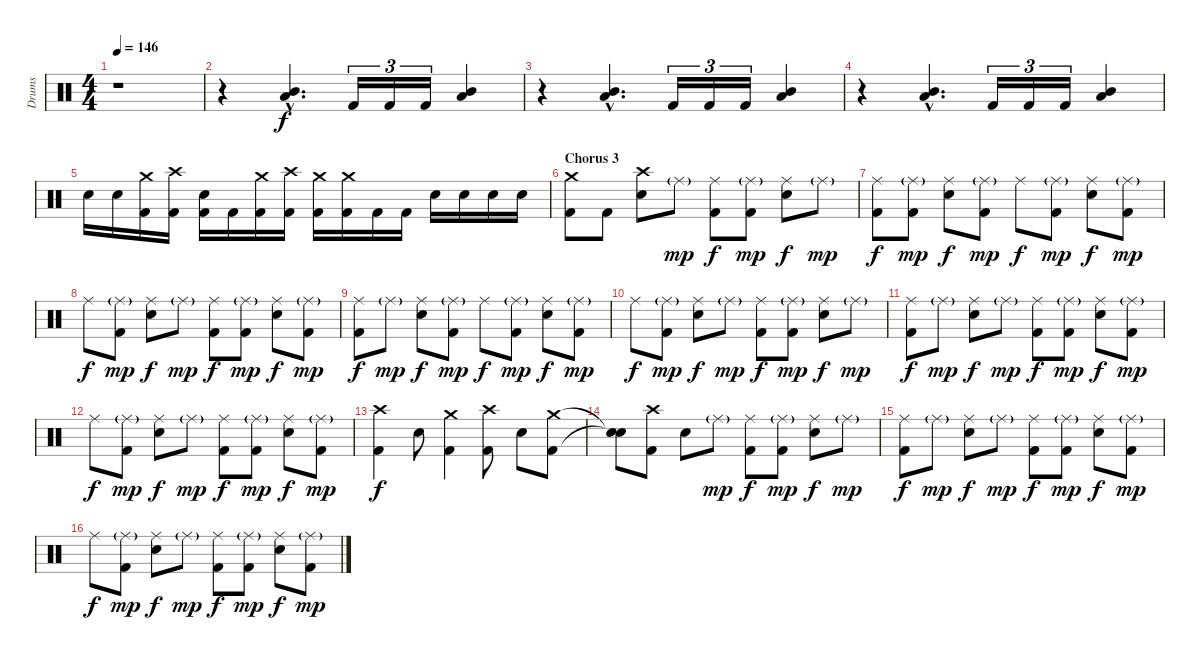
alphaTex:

\track ("Drums" "Drums") {instrument percussion}
\staff {score}
\articulation defaults
\ts (4 4)
\tempo 146
\clef neutral
\ks c
r.1{dy f} |
r.4 ("Mid Tom (hit)"{hac} "Low Floor Tom (hit)"{hac}).4{d} "Kick (hit) 2".16{tu (3 2)} "Kick (hit) 2".16{tu (3 2)} "Kick (hit) 2".16{tu (3 2)} ("Mid Tom (hit)" "Low Floor Tom (hit)").4 |
r.4 ("Mid Tom (hit)"{hac} "Low Floor Tom (hit)"{hac}).4{d} "Kick (hit) 2".16{tu (3 2)} "Kick (hit) 2".16{tu (3 2)} "Kick (hit) 2".16{tu (3 2)} ("Mid Tom (hit)" "Low Floor Tom (hit)").4 |
r.4 ("Mid Tom (hit)"{hac} "Low Floor Tom (hit)"{hac}).4{d} "Kick (hit) 2".16{tu (3 2)} "Kick (hit) 2".16{tu (3 2)} "Kick (hit) 2".16{tu (3 2)} ("Mid Tom (hit)" "Low Floor Tom (hit)").4 |
"Snare (hit) 2".16 "Snare (hit) 2".16 ("Crash medium (hit)" "Kick (hit) 2").16 ("Crash high (hit)" "Kick (hit) 2").16 ("Snare (hit) 2" "Kick (hit) 2").16 "Kick (hit) 2".16 ("Crash medium (hit)" "Kick (hit) 2").16 ("Crash high (hit)" "Kick (hit) 2").16 ("Crash medium (hit)" "Kick (hit) 2").16 ("Crash medium (hit)"{x} "Kick (hit) 2").16 "Kick (hit) 2".16 "Kick (hit) 2".16 "Snare (hit) 2".16 "Snare (hit) 2".16 "Snare (hit) 2".16 "Snare (hit) 2".16 |
\section ("" "Chorus 3")
("Crash medium (hit)" "Kick (hit) 2").8 "Kick (hit) 2".8 ("Crash high (hit)" "Snare (hit) 2").8 "Ride (middle)"{g}.8{dy mp} ("Ride (middle)" "Kick (hit) 2").8{dy f} ("Ride (middle)"{g} "Kick (hit) 2").8{dy mp} ("Ride (middle)" "Snare (hit) 2").8{dy f} "Ride (middle)"{g}.8{dy mp} |
("Ride (middle)" "Kick (hit) 2").8{dy f} ("Ride (middle)"{g} "Kick (hit) 2").8{dy mp} ("Ride (middle)" "Snare (hit) 2").8{dy f} ("Ride (middle)"{g} "Kick (hit) 2").8{dy mp} "Ride (middle)".8{dy f} ("Ride (middle)"{g} "Kick (hit) 2").8{dy mp} ("Ride (middle)" "Snare (hit) 2").8{dy f} ("Ride (middle)"{g} "Kick (hit) 2").8{dy mp} |
"Ride (middle)".8{dy f} ("Ride (middle)"{g} "Kick (hit) 2").8{dy mp} ("Ride (middle)" "Snare (hit) 2").8{dy f} "Ride (middle)"{g}.8{dy mp} ("Ride (middle)" "Kick (hit) 2").8{dy f} ("Ride (middle)"{g} "Kick (hit) 2").8{dy mp} ("Ride (middle)" "Snare (hit) 2").8{dy f} ("Ride (middle)"{g} "Kick (hit) 2").8{dy mp} |
("Ride (middle)" "Kick (hit) 2").8{dy f} "Ride (middle)"{g}.8{dy mp} ("Ride (middle)" "Snare (hit) 2").8{dy f} ("Ride (middle)"{g} "Kick (hit) 2").8{dy mp} "Ride (middle)".8{dy f} ("Ride (middle)"{g} "Kick (hit) 2").8{dy mp} ("Ride (middle)" "Snare (hit) 2").8{dy f} ("Ride (middle)"{g} "Kick (hit) 2").8{dy mp} |
"Ride (middle)".8{dy f} ("Ride (middle)"{g} "Kick (hit) 2").8{dy mp} ("Ride (middle)" "Snare (hit) 2").8{dy f} "Ride (middle)"{g}.8{dy mp} ("Ride (middle)" "Kick (hit) 2").8{dy f} ("Ride (middle)"{g} "Kick (hit) 2").8{dy mp} ("Ride (middle)" "Snare (hit) 2").8{dy f} "Ride (middle)"{g}.8{dy mp} |
("Ride (middle)" "Kick (hit) 2").8{dy f} "Ride (middle)"{g}.8{dy mp} ("Ride (middle)" "Snare (hit) 2").8{dy f} "Ride (middle)"{g}.8{dy mp} ("Ride (middle)" "Kick (hit) 2").8{dy f} ("Ride (middle)"{g} "Kick (hit) 2").8{dy mp} ("Ride (middle)" "Snare (hit) 2").8{dy f} ("Ride (middle)"{g} "Kick (hit) 2").8{dy mp} |
"Ride (middle)".8{dy f} ("Ride (middle)"{g} "Kick (hit) 2").8{dy mp} ("Ride (middle)" "Snare (hit) 2").8{dy f} "Ride (middle)"{g}.8{dy mp} ("Ride (middle)" "Kick (hit) 2").8{dy f} ("Ride (middle)"{g} "Kick (hit) 2").8{dy mp} ("Ride (middle)" "Snare (hit) 2").8{dy f} ("Ride (middle)"{g} "Kick (hit) 2").8{dy mp} |
("Crash high (hit)" "Kick (hit) 2").4{dy f} "Snare (hit) 2".8 ("Crash medium (hit)" "Kick (hit) 2").4 ("Crash high (hit)" "Kick (hit) 2").8 "Snare (hit) 2".8 ("Crash medium (hit)" "Kick (hit) 2").8 |
("Snare (hit)"{t} "Snare (hit)"{t}).8 ("Crash high (hit)" "Kick (hit) 2").8 "Snare (hit) 2".8 "Ride (middle)"{g}.8{dy mp} ("Ride (middle)" "Kick (hit) 2").8{dy f} ("Ride (middle)"{g} "Kick (hit) 2").8{dy mp} ("Ride (middle)" "Snare (hit) 2").8{dy f} "Ride (middle)"{g}.8{dy mp} |
("Ride (middle)" "Kick (hit) 2").8{dy f} "Ride (middle)"{g}.8{dy mp} ("Ride (middle)" "Snare (hit) 2").8{dy f} "Ride (middle)"{g}.8{dy mp} ("Ride (middle)" "Kick (hit) 2").8{dy f} ("Ride (middle)"{g} "Kick (hit) 2").8{dy mp} ("Ride (middle)" "Snare (hit) 2").8{dy f} ("Ride (middle)"{g} "Kick (hit) 2").8{dy mp} |
"Ride (middle)".8{dy f} ("Ride (middle)"{g} "Kick (hit) 2").8{dy mp} ("Ride (middle)" "Snare (hit) 2").8{dy f} "Ride (middle)"{g}.8{dy mp} ("Ride (middle)" "Kick (hit) 2").8{dy f} ("Ride (middle)"{g} "Kick (hit) 2").8{dy mp} ("Ride (middle)" "Snare (hit) 2").8{dy f} ("Ride (middle)"{g} "Kick (hit) 2").8{dy mp}
